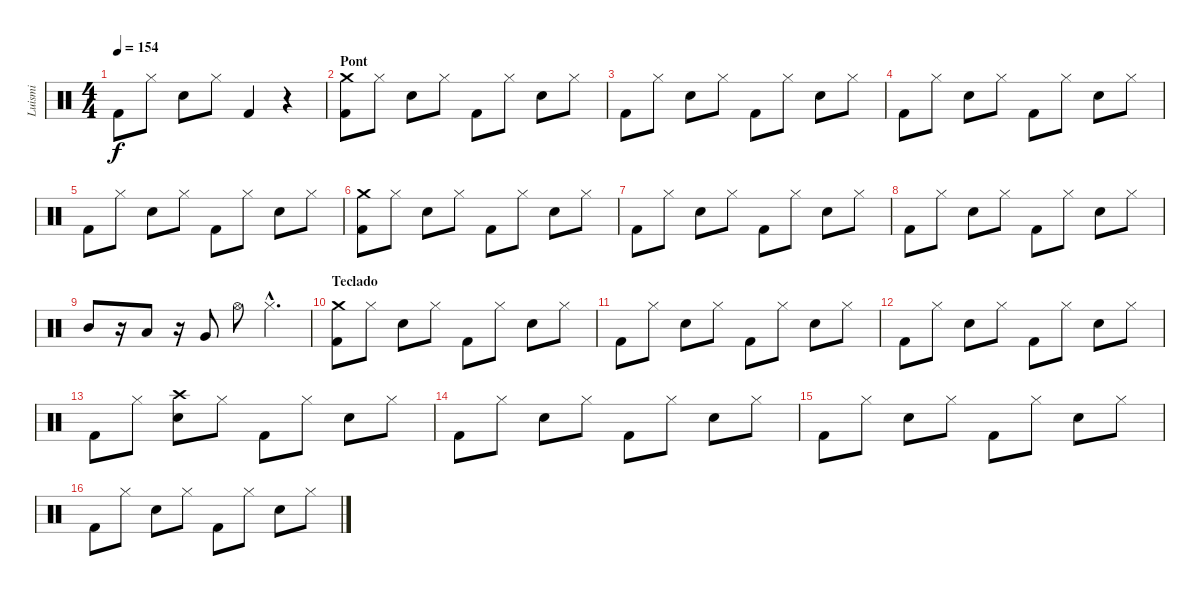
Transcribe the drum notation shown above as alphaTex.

\track ("Luismi" "Luismi") {instrument percussion}
\staff {score}
\articulation defaults
\ts (4 4)
\tempo 154
\clef neutral
\ks c "Kick (hit) 2".8{dy f} "Hi-Hat (closed)".8 "Snare (hit) 2".8 "Hi-Hat (closed)".8 "Kick (hit) 2".4
r.4 |
\section ("" "Pont")
("Crash medium (hit)" "Kick (hit) 2").8 "Hi-Hat (closed)".8 "Snare (hit) 2".8 "Hi-Hat (closed)".8 "Kick (hit) 2".8 "Hi-Hat (closed)".8 "Snare (hit) 2".8 "Hi-Hat (closed)".8 |
"Kick (hit) 2".8 "Hi-Hat (closed)".8 "Snare (hit) 2".8 "Hi-Hat (closed)".8 "Kick (hit) 2".8 "Hi-Hat (closed)".8 "Snare (hit) 2".8 "Hi-Hat (closed)".8 |
"Kick (hit) 2".8 "Hi-Hat (closed)".8 "Snare (hit) 2".8 "Hi-Hat (closed)".8 "Kick (hit) 2".8 "Hi-Hat (closed)".8 "Snare (hit) 2".8 "Hi-Hat (closed)".8 |
"Kick (hit) 2".8 "Hi-Hat (closed)".8 "Snare (hit) 2".8 "Hi-Hat (closed)".8 "Kick (hit) 2".8 "Hi-Hat (closed)".8 "Snare (hit) 2".8 "Hi-Hat (closed)".8 |
("Crash medium (hit)" "Kick (hit) 2").8 "Hi-Hat (closed)".8 "Snare (hit) 2".8 "Hi-Hat (closed)".8 "Kick (hit) 2".8 "Hi-Hat (closed)".8 "Snare (hit) 2".8 "Hi-Hat (closed)".8 |
"Kick (hit) 2".8 "Hi-Hat (closed)".8 "Snare (hit) 2".8 "Hi-Hat (closed)".8 "Kick (hit) 2".8 "Hi-Hat (closed)".8 "Snare (hit) 2".8 "Hi-Hat (closed)".8 |
"Kick (hit) 2".8 "Hi-Hat (closed)".8 "Snare (hit) 2".8 "Hi-Hat (closed)".8 "Kick (hit) 2".8 "Hi-Hat (closed)".8 "Snare (hit) 2".8 "Hi-Hat (closed)".8 |
"Mid Tom (hit)".8 r.16 "Low Tom (hit)".8 r.16 "Very Low Tom (hit)".8 "Hi-Hat (open)".8 "Hi-Hat (closed)"{hac}.4{d} |
\section ("" "Teclado")
("Crash medium (hit)" "Kick (hit) 2").8 "Hi-Hat (closed)".8 "Snare (hit) 2".8 "Hi-Hat (closed)".8 "Kick (hit) 2".8 "Hi-Hat (closed)".8 "Snare (hit) 2".8 "Hi-Hat (closed)".8 |
"Kick (hit) 2".8 "Hi-Hat (closed)".8 "Snare (hit) 2".8 "Hi-Hat (closed)".8 "Kick (hit) 2".8 "Hi-Hat (closed)".8 "Snare (hit) 2".8 "Hi-Hat (closed)".8 |
"Kick (hit) 2".8 "Hi-Hat (closed)".8 "Snare (hit) 2".8 "Hi-Hat (closed)".8 "Kick (hit) 2".8 "Hi-Hat (closed)".8 "Snare (hit) 2".8 "Hi-Hat (closed)".8 |
"Kick (hit) 2".8 "Hi-Hat (closed)".8 ("Crash high (hit)" "Snare (hit) 2").8 "Hi-Hat (closed)".8 "Kick (hit) 2".8 "Hi-Hat (closed)".8 "Snare (hit) 2".8 "Hi-Hat (closed)".8 |
"Kick (hit) 2".8 "Hi-Hat (closed)".8 "Snare (hit) 2".8 "Hi-Hat (closed)".8 "Kick (hit) 2".8 "Hi-Hat (closed)".8 "Snare (hit) 2".8 "Hi-Hat (closed)".8 |
"Kick (hit) 2".8 "Hi-Hat (closed)".8 "Snare (hit) 2".8 "Hi-Hat (closed)".8 "Kick (hit) 2".8 "Hi-Hat (closed)".8 "Snare (hit) 2".8 "Hi-Hat (closed)".8 |
"Kick (hit) 2".8 "Hi-Hat (closed)".8 "Snare (hit) 2".8 "Hi-Hat (closed)".8 "Kick (hit) 2".8 "Hi-Hat (closed)".8 "Snare (hit) 2".8 "Hi-Hat (closed)".8
